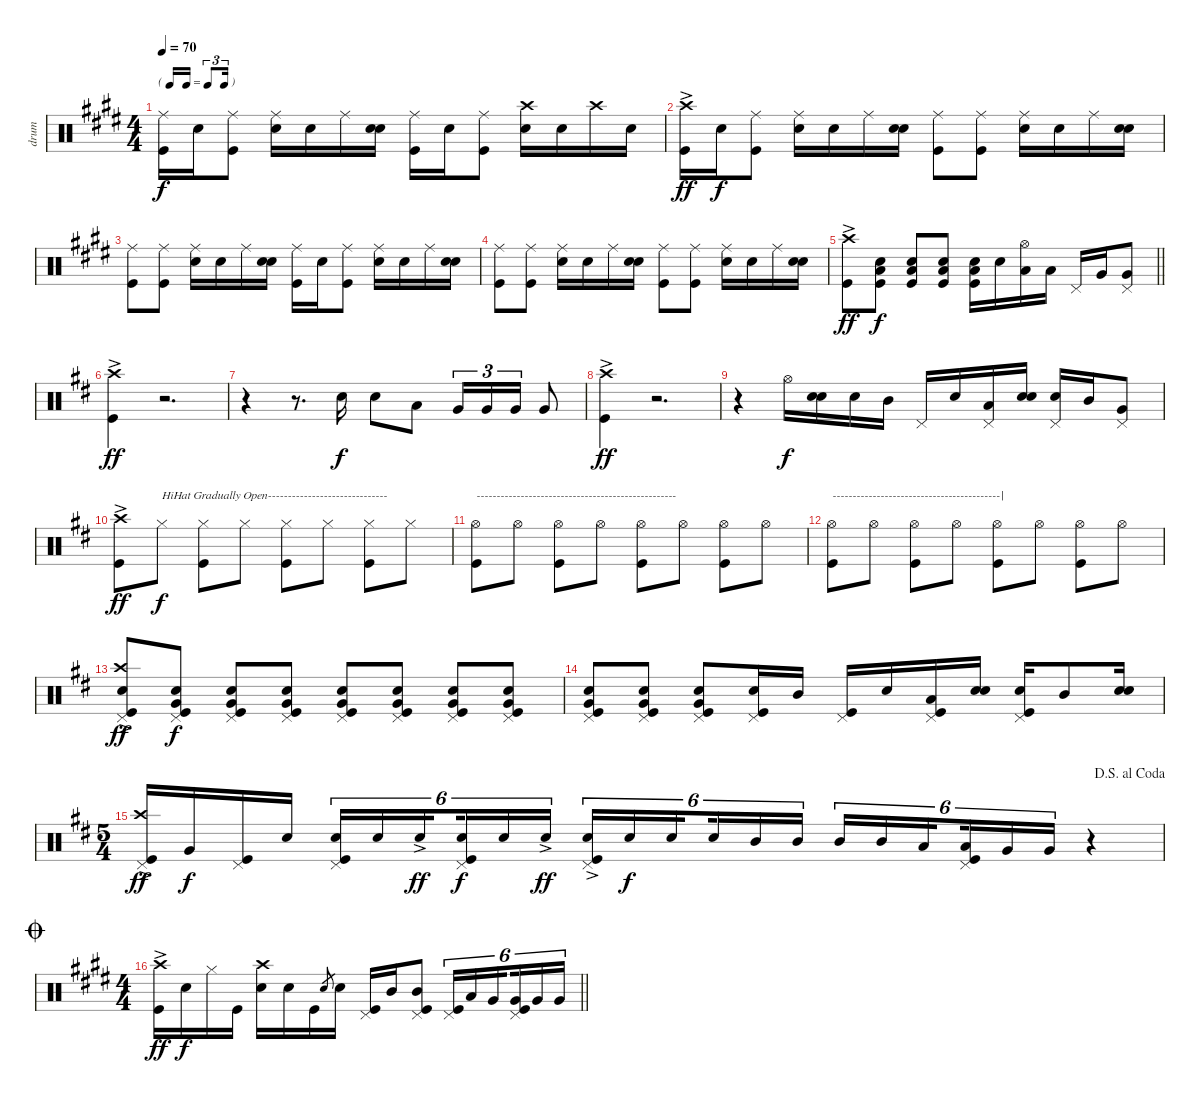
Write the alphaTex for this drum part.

\track ("drum" "drum") {instrument percussion}
\staff {score}
\articulation defaults
\ts (4 4)
\tf triplet16th
\tempo 70
\clef neutral
\ks e
("Ride (middle)" "Kick (hit)").16{dy f} "Snare (hit) 2".16 ("Ride (middle)" "Kick (hit)").8 ("Ride (middle)" "Snare (hit) 2").16 "Snare (hit) 2".16 "Ride (middle)".16 ("Snare (hit) 2" "Snare (hit) 2").16 ("Ride (middle)" "Kick (hit)").16 "Snare (hit) 2".16 ("Ride (middle)" "Kick (hit)").8 ("Crash high (hit)" "Snare (hit) 2").16 "Snare (hit) 2".16 "Crash high (hit)".16 "Snare (hit) 2".16 |
("Crash high (hit)"{ac} "Kick (hit)").16{dy ff} "Snare (hit) 2".16{dy f} ("Ride (middle)" "Kick (hit)").8 ("Ride (middle)" "Snare (hit) 2").16 "Snare (hit) 2".16 "Ride (middle)".16 ("Snare (hit) 2" "Snare (hit) 2").16 ("Ride (middle)" "Kick (hit)").8 ("Ride (middle)" "Kick (hit)").8 ("Ride (middle)" "Snare (hit) 2").16 "Snare (hit) 2".16 "Ride (middle)".16 ("Snare (hit) 2" "Snare (hit) 2").16 |
("Ride (middle)" "Kick (hit)").8 ("Ride (middle)" "Kick (hit)").8 ("Ride (middle)" "Snare (hit) 2").16 "Snare (hit) 2".16 "Ride (middle)".16 ("Snare (hit) 2" "Snare (hit) 2").16 ("Ride (middle)" "Kick (hit)").16 "Snare (hit) 2".16 ("Ride (middle)" "Kick (hit)").8 ("Ride (middle)" "Snare (hit) 2").16 "Snare (hit) 2".16 "Ride (middle)".16 ("Snare (hit) 2" "Snare (hit) 2").16 |
("Ride (middle)" "Kick (hit)").8 ("Ride (middle)" "Kick (hit)").8 ("Ride (middle)" "Snare (hit) 2").16 "Snare (hit) 2".16 "Ride (middle)".16 ("Snare (hit) 2" "Snare (hit) 2").16 ("Ride (middle)" "Kick (hit)").8 ("Ride (middle)" "Kick (hit)").8 ("Ride (middle)" "Snare (hit) 2").16 "Snare (hit) 2".16 "Ride (middle)".16 ("Snare (hit) 2" "Snare (hit) 2").16 |
\barLineRight lightlight
("Crash high (hit)"{ac} "Kick (hit)").8{dy ff} ("Low Tom (hit)" "Snare (hit) 2" "Kick (hit)").8{dy f} ("Low Tom (hit)" "Snare (hit) 2" "Kick (hit)").8 ("Low Tom (hit)" "Snare (hit) 2" "Kick (hit)").8 ("Low Tom (hit)" "Snare (hit) 2" "Kick (hit)").16 "Snare (hit) 2".16 ("Hi-Hat (open)" "Low Tom (hit)").16 "Low Tom (hit)".16 "Pedal Hi-Hat (hit)".16 "Very Low Tom (hit)".16 ("Very Low Tom (hit)" "Pedal Hi-Hat (hit)").8 |
\section ("" "")
\ks d
("Crash high (hit)"{ac} "Kick (hit)").4{dy ff} r.2{d} |
r.4 r.8{d} "Snare (hit) 2".16{dy f} "Snare (hit) 2".8 "Low Tom (hit)".8 "Very Low Tom (hit)".16{tu (3 2)} "Very Low Tom (hit)".16{tu (3 2)} "Very Low Tom (hit)".16{tu (3 2)} "Very Low Tom (hit)".8 |
("Crash high (hit)"{ac} "Kick (hit)").4{dy ff} r.2{d} |
r.4 "Hi-Hat (open)".16{dy f} ("Snare (hit) 2" "Snare (hit) 2").16 "Snare (hit) 2".16 "Mid Tom (hit)".16 "Pedal Hi-Hat (hit)".16 "Snare (hit) 2".16 ("Low Tom (hit)" "Pedal Hi-Hat (hit)").16 ("Snare (hit) 2" "Snare (hit) 2").16 ("Snare (hit) 2" "Pedal Hi-Hat (hit)").16 "Mid Tom (hit)".16 ("Very Low Tom (hit)" "Pedal Hi-Hat (hit)").8 |
("Crash high (hit)"{ac} "Kick (hit)").8{dy ff} "Hi-Hat (closed)".8{txt "HiHat Gradually Open------------------------------" dy f volume 11} ("Hi-Hat (closed)" "Kick (hit)").8{volume 15} "Hi-Hat (closed)".8 ("Hi-Hat (closed)" "Kick (hit)").8 "Hi-Hat (closed)".8 ("Hi-Hat (closed)" "Kick (hit)").8 "Hi-Hat (closed)".8 |
("Hi-Hat (open)" "Kick (hit)").8{txt "--------------------------------------------------"} "Hi-Hat (open)".8 ("Hi-Hat (open)" "Kick (hit)").8 "Hi-Hat (open)".8 ("Hi-Hat (open)" "Kick (hit)").8 "Hi-Hat (open)".8 ("Hi-Hat (open)" "Kick (hit)").8 "Hi-Hat (open)".8 |
("Hi-Hat (open)" "Kick (hit)").8{txt "------------------------------------------|"} "Hi-Hat (open)".8 ("Hi-Hat (open)" "Kick (hit)").8 "Hi-Hat (open)".8 ("Hi-Hat (open)" "Kick (hit)").8 "Hi-Hat (open)".8 ("Hi-Hat (open)" "Kick (hit)").8 "Hi-Hat (open)".8 |
("Crash high (hit)"{ac} "Snare (hit) 2" "Kick (hit)" "Pedal Hi-Hat (hit)").8{dy ff} ("Very Low Tom (hit)" "Snare (hit) 2" "Kick (hit)" "Pedal Hi-Hat (hit)").8{dy f volume 8} ("Very Low Tom (hit)" "Snare (hit) 2" "Kick (hit)" "Pedal Hi-Hat (hit)").8{volume 15} ("Very Low Tom (hit)" "Snare (hit) 2" "Kick (hit)" "Pedal Hi-Hat (hit)").8 ("Very Low Tom (hit)" "Snare (hit) 2" "Kick (hit)" "Pedal Hi-Hat (hit)").8 ("Very Low Tom (hit)" "Snare (hit) 2" "Kick (hit)" "Pedal Hi-Hat (hit)").8 ("Very Low Tom (hit)" "Snare (hit) 2" "Kick (hit)" "Pedal Hi-Hat (hit)").8 ("Very Low Tom (hit)" "Snare (hit) 2" "Kick (hit)" "Pedal Hi-Hat (hit)").8 |
("Very Low Tom (hit)" "Snare (hit) 2" "Kick (hit)" "Pedal Hi-Hat (hit)").8 ("Very Low Tom (hit)" "Snare (hit) 2" "Kick (hit)" "Pedal Hi-Hat (hit)").8 ("Very Low Tom (hit)" "Snare (hit) 2" "Kick (hit)" "Pedal Hi-Hat (hit)").8 ("Snare (hit) 2" "Kick (hit)" "Pedal Hi-Hat (hit)").16 "Mid Tom (hit)".16 ("Kick (hit)" "Pedal Hi-Hat (hit)").16 "Snare (hit) 2".16 ("Low Tom (hit)" "Kick (hit)" "Pedal Hi-Hat (hit)").16 ("Snare (hit) 2" "Snare (hit) 2").16 ("Snare (hit) 2" "Kick (hit)" "Pedal Hi-Hat (hit)").16 "Mid Tom (hit)".8 ("Snare (hit) 2" "Snare (hit) 2").16 |
\ts (5 4)
\jump dalsegnoalcoda
("Crash high (hit)"{ac} "Kick (hit)" "Pedal Hi-Hat (hit)").16{dy ff} "Very Low Tom (hit)".16{dy f} ("Kick (hit)" "Pedal Hi-Hat (hit)").16 "Snare (hit) 2".16 ("Snare (hit) 2" "Kick (hit)" "Pedal Hi-Hat (hit)").16{tu (6 4)} "Snare (hit) 2".16{tu (6 4)} "Snare (hit) 2"{ac}.16{tu (6 4) dy ff beam splitsecondary} ("Snare (hit) 2" "Kick (hit)" "Pedal Hi-Hat (hit)").16{tu (6 4) dy f} "Snare (hit) 2".16{tu (6 4)} "Snare (hit) 2"{ac}.16{tu (6 4) dy ff} ("Snare (hit) 2"{ac} "Kick (hit)" "Pedal Hi-Hat (hit)").16{tu (6 4)} "Snare (hit) 2".16{tu (6 4) dy f} "Snare (hit) 2".16{tu (6 4) beam splitsecondary} "Snare (hit) 2".16{tu (6 4)} "Mid Tom (hit)".16{tu (6 4)} "Mid Tom (hit)".16{tu (6 4)} "Mid Tom (hit)".16{tu (6 4)} "Mid Tom (hit)".16{tu (6 4)} "Low Tom (hit)".16{tu (6 4) beam splitsecondary} ("Low Tom (hit)" "Kick (hit)" "Pedal Hi-Hat (hit)").16{tu (6 4)} "Very Low Tom (hit)".16{tu (6 4)} "Very Low Tom (hit)".16{tu (6 4)} r.4 |
\ts (4 4)
\jump coda
\barLineRight lightlight
\ks e
("Crash high (hit)"{ac} "Kick (hit)").16{dy ff} "Snare (hit) 2".16{dy f} "Hi-Hat (closed)".16 "Kick (hit)".16 ("Crash high (hit)" "Snare (hit) 2").16 "Snare (hit) 2".16 "Kick (hit)".16 "Snare (hit) 2".8{gr} "Snare (hit) 2".16 ("Kick (hit)" "Pedal Hi-Hat (hit)").16 "Mid Tom (hit)".16 ("Mid Tom (hit)" "Kick (hit)" "Pedal Hi-Hat (hit)").8 ("Kick (hit)" "Pedal Hi-Hat (hit)").16{tu (6 4)} "Low Tom (hit)".16{tu (6 4)} "Very Low Tom (hit)".16{tu (6 4) beam splitsecondary} ("Kick (hit)" "Very Low Tom (hit)" "Pedal Hi-Hat (hit)").16{tu (6 4)} "Very Low Tom (hit)".16{tu (6 4)} "Very Low Tom (hit)".16{tu (6 4)}
